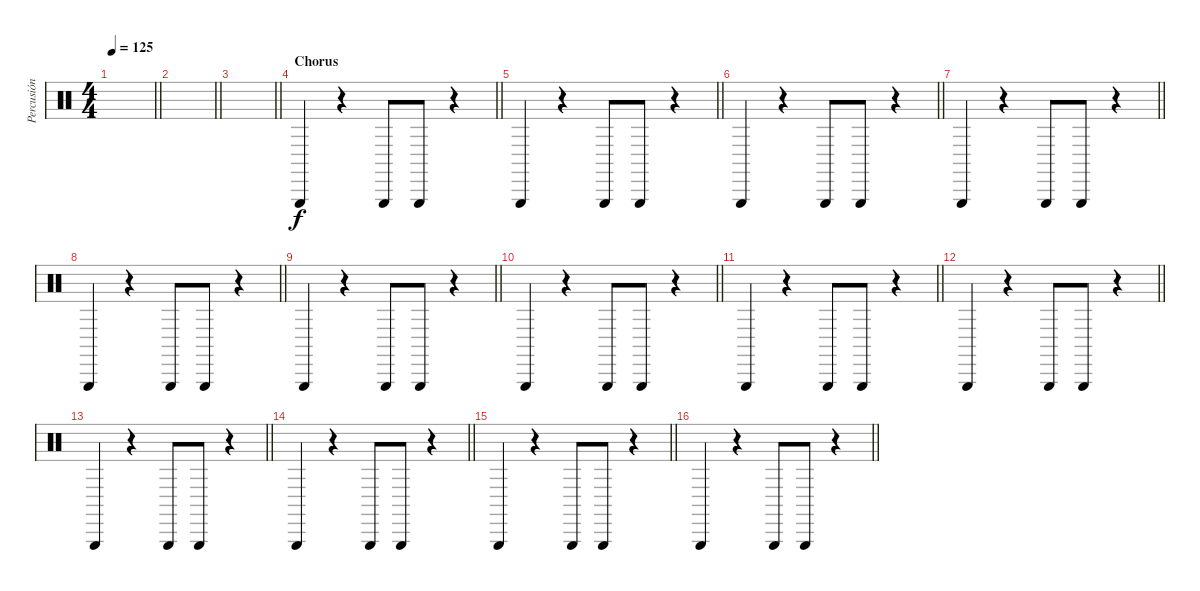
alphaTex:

\track ("Percusión" "Percusión") {instrument percussion}
\staff {score}
\articulation defaults
\ts (4 4)
\tempo 125
\clef neutral
\barLineRight lightlight
\ks c
|
\barLineRight lightlight
|
\barLineRight lightlight
|
\section ("" "Chorus")
\barLineRight lightlight "Triangle (hit)".4
r.4 "Triangle (hit)".8 "Triangle (hit)".8 r.4 |
\barLineRight lightlight "Triangle (hit)".4
r.4 "Triangle (hit)".8 "Triangle (hit)".8 r.4 |
\barLineRight lightlight "Triangle (hit)".4
r.4 "Triangle (hit)".8 "Triangle (hit)".8 r.4 |
\barLineRight lightlight "Triangle (hit)".4
r.4 "Triangle (hit)".8 "Triangle (hit)".8 r.4 |
\barLineRight lightlight "Triangle (hit)".4
r.4 "Triangle (hit)".8 "Triangle (hit)".8 r.4 |
\barLineRight lightlight "Triangle (hit)".4
r.4 "Triangle (hit)".8 "Triangle (hit)".8 r.4 |
\barLineRight lightlight "Triangle (hit)".4
r.4 "Triangle (hit)".8 "Triangle (hit)".8 r.4 |
\barLineRight lightlight "Triangle (hit)".4
r.4 "Triangle (hit)".8 "Triangle (hit)".8 r.4 |
\barLineRight lightlight "Triangle (hit)".4
r.4 "Triangle (hit)".8 "Triangle (hit)".8 r.4 |
\barLineRight lightlight "Triangle (hit)".4
r.4 "Triangle (hit)".8 "Triangle (hit)".8 r.4 |
\barLineRight lightlight "Triangle (hit)".4
r.4 "Triangle (hit)".8 "Triangle (hit)".8 r.4 |
\barLineRight lightlight "Triangle (hit)".4
r.4 "Triangle (hit)".8 "Triangle (hit)".8 r.4 |
\barLineRight lightlight "Triangle (hit)".4
r.4 "Triangle (hit)".8 "Triangle (hit)".8 r.4
